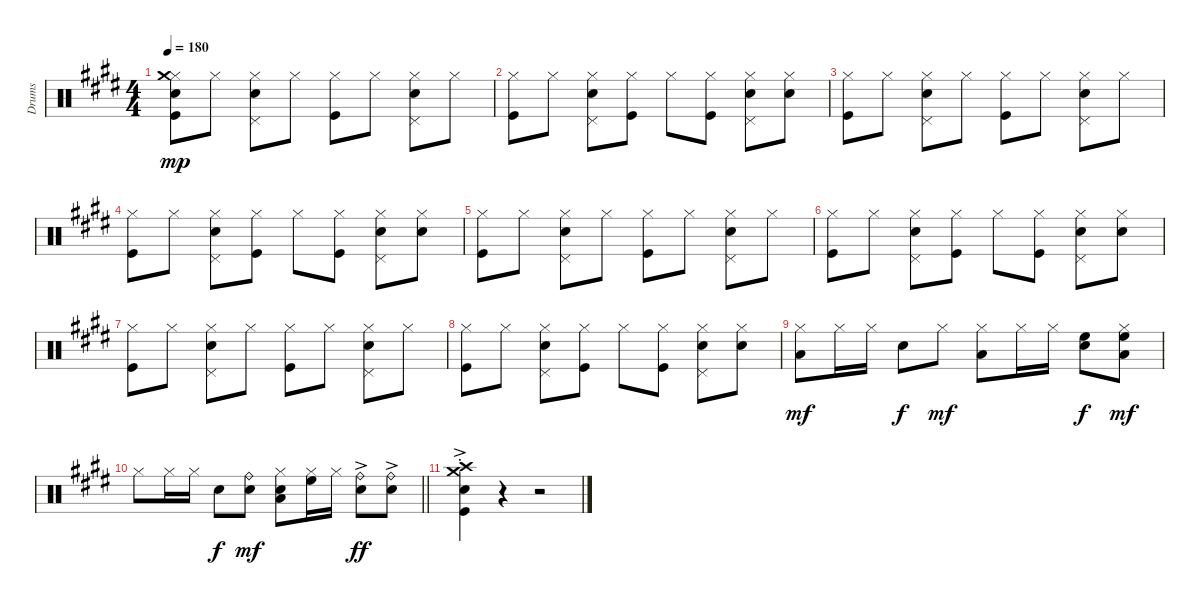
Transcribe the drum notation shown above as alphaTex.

\track ("Drums" "Drums") {instrument percussion}
\staff {score}
\articulation defaults
\ts (4 4)
\tempo 180
\clef neutral
\ks e
("Hi-Hat (closed)" "Crash medium (hit)" "Snare (hit) 2" "Kick (hit)").8{dy mp} "Hi-Hat (closed)".8 ("Hi-Hat (closed)" "Snare (hit) 2" "Pedal Hi-Hat (hit)").8 "Hi-Hat (closed)".8 ("Hi-Hat (closed)" "Kick (hit)").8 "Hi-Hat (closed)".8 ("Hi-Hat (closed)" "Snare (hit) 2" "Pedal Hi-Hat (hit)").8 "Hi-Hat (closed)".8 |
("Hi-Hat (closed)" "Kick (hit)").8 "Hi-Hat (closed)".8 ("Hi-Hat (closed)" "Snare (hit) 2" "Pedal Hi-Hat (hit)").8 ("Hi-Hat (closed)" "Kick (hit)").8 "Hi-Hat (closed)".8 ("Hi-Hat (closed)" "Kick (hit)").8 ("Hi-Hat (closed)" "Snare (hit) 2" "Pedal Hi-Hat (hit)").8 ("Hi-Hat (closed)" "Snare (hit) 2").8 |
("Hi-Hat (closed)" "Kick (hit)").8 "Hi-Hat (closed)".8 ("Hi-Hat (closed)" "Snare (hit) 2" "Pedal Hi-Hat (hit)").8 "Hi-Hat (closed)".8 ("Hi-Hat (closed)" "Kick (hit)").8 "Hi-Hat (closed)".8 ("Hi-Hat (closed)" "Snare (hit) 2" "Pedal Hi-Hat (hit)").8 "Hi-Hat (closed)".8 |
("Hi-Hat (closed)" "Kick (hit)").8 "Hi-Hat (closed)".8 ("Hi-Hat (closed)" "Snare (hit) 2" "Pedal Hi-Hat (hit)").8 ("Hi-Hat (closed)" "Kick (hit)").8 "Hi-Hat (closed)".8 ("Hi-Hat (closed)" "Kick (hit)").8 ("Hi-Hat (closed)" "Snare (hit) 2" "Pedal Hi-Hat (hit)").8 ("Hi-Hat (closed)" "Snare (hit) 2").8 |
("Hi-Hat (closed)" "Kick (hit)").8 "Hi-Hat (closed)".8 ("Hi-Hat (closed)" "Snare (hit) 2" "Pedal Hi-Hat (hit)").8 "Hi-Hat (closed)".8 ("Hi-Hat (closed)" "Kick (hit)").8 "Hi-Hat (closed)".8 ("Hi-Hat (closed)" "Snare (hit) 2" "Pedal Hi-Hat (hit)").8 "Hi-Hat (closed)".8 |
("Hi-Hat (closed)" "Kick (hit)").8 "Hi-Hat (closed)".8 ("Hi-Hat (closed)" "Snare (hit) 2" "Pedal Hi-Hat (hit)").8 ("Hi-Hat (closed)" "Kick (hit)").8 "Hi-Hat (closed)".8 ("Hi-Hat (closed)" "Kick (hit)").8 ("Hi-Hat (closed)" "Snare (hit) 2" "Pedal Hi-Hat (hit)").8 ("Hi-Hat (closed)" "Snare (hit) 2").8 |
("Hi-Hat (closed)" "Kick (hit)").8 "Hi-Hat (closed)".8 ("Hi-Hat (closed)" "Snare (hit) 2" "Pedal Hi-Hat (hit)").8 "Hi-Hat (closed)".8 ("Hi-Hat (closed)" "Kick (hit)").8 "Hi-Hat (closed)".8 ("Hi-Hat (closed)" "Snare (hit) 2" "Pedal Hi-Hat (hit)").8 "Hi-Hat (closed)".8 |
("Hi-Hat (closed)" "Kick (hit)").8 "Hi-Hat (closed)".8 ("Hi-Hat (closed)" "Snare (hit) 2" "Pedal Hi-Hat (hit)").8 ("Hi-Hat (closed)" "Kick (hit)").8 "Hi-Hat (closed)".8 ("Hi-Hat (closed)" "Kick (hit)").8 ("Hi-Hat (closed)" "Snare (hit) 2" "Pedal Hi-Hat (hit)").8 ("Hi-Hat (closed)" "Snare (hit) 2").8 |
("Hi-Hat (closed)" "Low Tom (hit)").8{dy mf} "Hi-Hat (closed)".16 "Hi-Hat (closed)".16 "Snare (hit) 2".8{dy f} "Hi-Hat (closed)".8{dy mf} ("Hi-Hat (closed)" "Low Tom (hit)").8 "Hi-Hat (closed)".16 "Hi-Hat (closed)".16 ("High Floor Tom (hit)" "Snare (hit) 2").8{dy f} ("Hi-Hat (closed)" "High Floor Tom (hit)" "Low Tom (hit)").8{dy mf} |
\barLineRight lightlight "Hi-Hat (closed)".8 "Hi-Hat (closed)".16 "Hi-Hat (closed)".16 "Snare (hit) 2".8{dy f}
("Ride (bell)" "Snare (hit) 2").8{dy mf} ("Hi-Hat (closed)" "Snare (hit) 2" "Low Tom (hit)").8 ("Hi-Hat (closed)" "High Floor Tom (hit)").16 "Hi-Hat (closed)".16 ("Ride (bell)" "Snare (hit) 2"{ac}).8{dy ff} ("Ride (bell)" "Snare (hit) 2"{ac}).8 |
("Crash high (hit)"{ac st} "Crash medium (hit)"{ac st} "Snare (hit) 2"{ac st} "Kick (hit)"{ac st}).4 r.4 r.2
